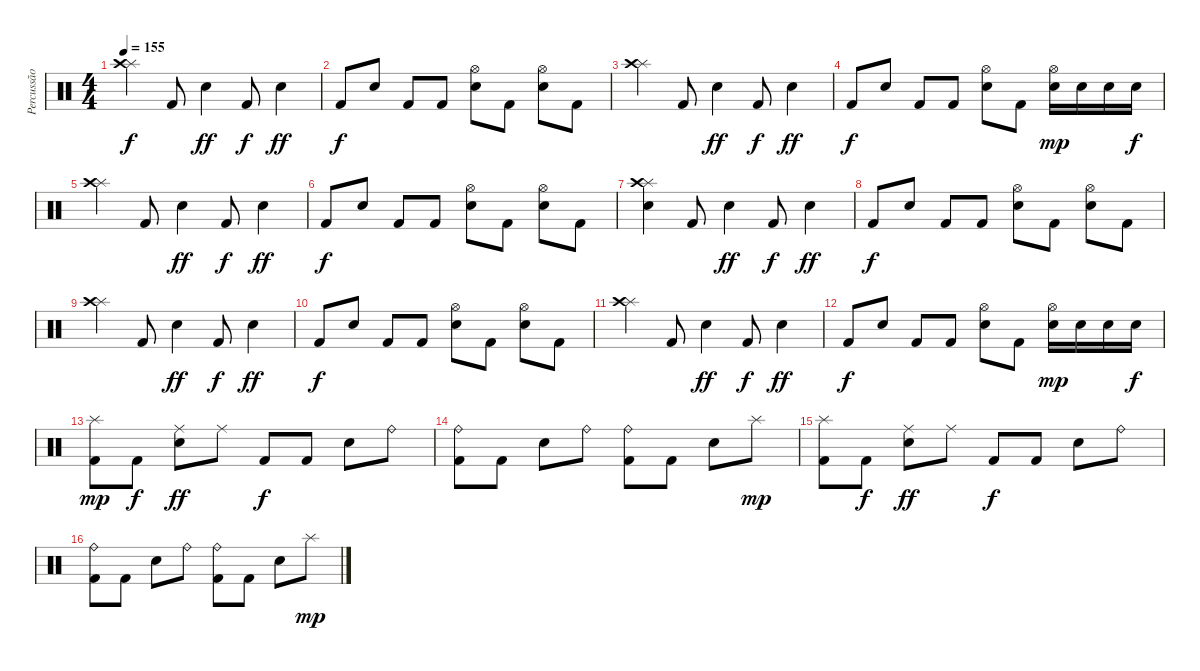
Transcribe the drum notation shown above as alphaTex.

\track ("Percussão" "Percussão") {instrument percussion}
\staff {score}
\articulation defaults
\ts (4 4)
\tempo 155
\clef neutral
\ks c
("Splash (hit)" "Crash high (hit)").4{dy f} "Kick (hit) 2".8 "Electric Snare (hit)".4{dy ff} "Kick (hit) 2".8{dy f} "Electric Snare (hit)".4{dy ff} |
"Kick (hit) 2".8{dy f} "Electric Snare (hit)".8 "Kick (hit) 2".8 "Kick (hit) 2".8 ("Hi-Hat (open)" "Electric Snare (hit)").8 "Kick (hit) 2".8 ("Hi-Hat (open)" "Electric Snare (hit)").8 "Kick (hit) 2".8 |
("Splash (hit)" "Crash high (hit)").4 "Kick (hit) 2".8 "Electric Snare (hit)".4{dy ff} "Kick (hit) 2".8{dy f} "Electric Snare (hit)".4{dy ff} |
"Kick (hit) 2".8{dy f} "Electric Snare (hit)".8 "Kick (hit) 2".8 "Kick (hit) 2".8 ("Hi-Hat (open)" "Electric Snare (hit)").8 "Kick (hit) 2".8 ("Hi-Hat (open)" "Electric Snare (hit)").16{dy mp} "Electric Snare (hit)".16 "Electric Snare (hit)".16 "Electric Snare (hit)".16{dy f} |
("Splash (hit)" "Crash high (hit)").4 "Kick (hit) 2".8 "Electric Snare (hit)".4{dy ff} "Kick (hit) 2".8{dy f} "Electric Snare (hit)".4{dy ff} |
"Kick (hit) 2".8{dy f} "Electric Snare (hit)".8 "Kick (hit) 2".8 "Kick (hit) 2".8 ("Hi-Hat (open)" "Electric Snare (hit)").8 "Kick (hit) 2".8 ("Hi-Hat (open)" "Electric Snare (hit)").8 "Kick (hit) 2".8 |
("Splash (hit)" "Crash high (hit)" "Electric Snare (hit)").4 "Kick (hit) 2".8 "Electric Snare (hit)".4{dy ff} "Kick (hit) 2".8{dy f} "Electric Snare (hit)".4{dy ff} |
"Kick (hit) 2".8{dy f} "Electric Snare (hit)".8 "Kick (hit) 2".8 "Kick (hit) 2".8 ("Hi-Hat (open)" "Electric Snare (hit)").8 "Kick (hit) 2".8 ("Hi-Hat (open)" "Electric Snare (hit)").8 "Kick (hit) 2".8 |
("Splash (hit)" "Crash high (hit)").4 "Kick (hit) 2".8 "Electric Snare (hit)".4{dy ff} "Kick (hit) 2".8{dy f} "Electric Snare (hit)".4{dy ff} |
"Kick (hit) 2".8{dy f} "Electric Snare (hit)".8 "Kick (hit) 2".8 "Kick (hit) 2".8 ("Hi-Hat (open)" "Electric Snare (hit)").8 "Kick (hit) 2".8 ("Hi-Hat (open)" "Electric Snare (hit)").8 "Kick (hit) 2".8 |
("Splash (hit)" "Crash high (hit)").4 "Kick (hit) 2".8 "Electric Snare (hit)".4{dy ff} "Kick (hit) 2".8{dy f} "Electric Snare (hit)".4{dy ff} |
"Kick (hit) 2".8{dy f} "Electric Snare (hit)".8 "Kick (hit) 2".8 "Kick (hit) 2".8 ("Hi-Hat (open)" "Electric Snare (hit)").8 "Kick (hit) 2".8 ("Hi-Hat (open)" "Electric Snare (hit)").16{dy mp} "Electric Snare (hit)".16 "Electric Snare (hit)".16 "Electric Snare (hit)".16{dy f} |
("Splash (hit)" "Kick (hit) 2").8{dy mp} "Kick (hit) 2".8{dy f} ("Ride (middle)" "Electric Snare (hit)").8{dy ff} "Ride (middle)".8 "Kick (hit) 2".8{dy f} "Kick (hit) 2".8 "Electric Snare (hit)".8 "Ride (bell)".8 |
("Ride (bell)" "Kick (hit) 2").8 "Kick (hit) 2".8 "Electric Snare (hit)".8 "Ride (bell)".8 ("Ride (bell)" "Kick (hit) 2").8 "Kick (hit) 2".8 "Electric Snare (hit)".8 "Splash (hit)".8{dy mp} |
("Splash (hit)" "Kick (hit) 2").8 "Kick (hit) 2".8{dy f} ("Ride (middle)" "Electric Snare (hit)").8{dy ff} "Ride (middle)".8 "Kick (hit) 2".8{dy f} "Kick (hit) 2".8 "Electric Snare (hit)".8 "Ride (bell)".8 |
("Ride (bell)" "Kick (hit) 2").8 "Kick (hit) 2".8 "Electric Snare (hit)".8 "Ride (bell)".8 ("Ride (bell)" "Kick (hit) 2").8 "Kick (hit) 2".8 "Electric Snare (hit)".8 "Splash (hit)".8{dy mp}
